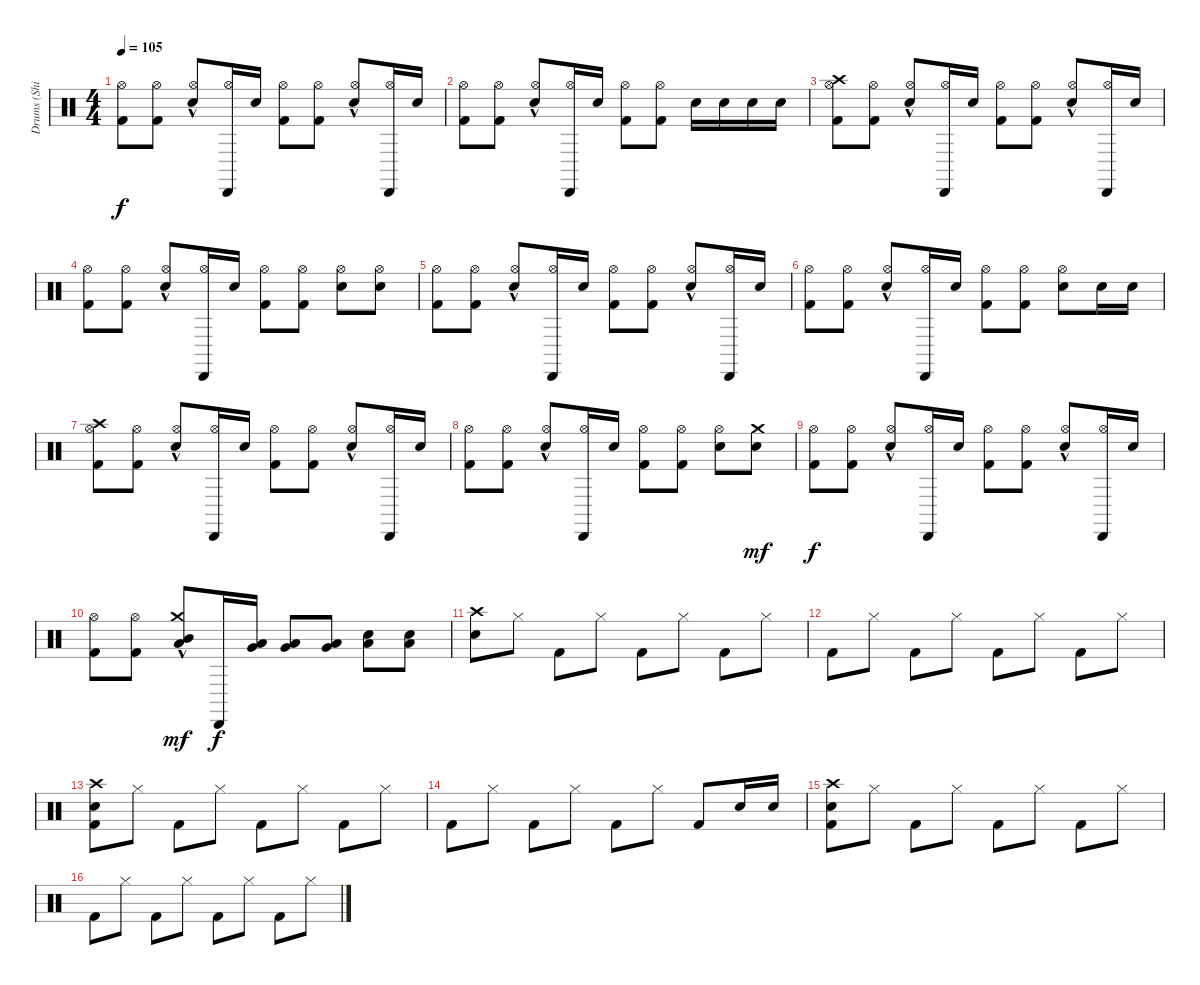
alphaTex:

\track ("Drums (Shinya)" "Drums (Shi") {instrument percussion}
\staff {score}
\articulation defaults
\ts (4 4)
\tempo 105
\clef neutral
\ks c
("Hi-Hat (open)" "Kick (hit) 2").8{dy f} ("Hi-Hat (open)" "Kick (hit) 2").8 ("Hi-Hat (open)" "Electric Snare (hit)"{hac}).8 ("Hi-Hat (open)" "Cabasa (hit)").16 "Electric Snare (hit)".16 ("Kick (hit) 2" "Hi-Hat (open)").8 ("Hi-Hat (open)" "Kick (hit) 2").8 ("Electric Snare (hit)"{hac} "Hi-Hat (open)").8 ("Hi-Hat (open)" "Cabasa (hit)").16 "Electric Snare (hit)".16 |
("Hi-Hat (open)" "Kick (hit) 2").8 ("Hi-Hat (open)" "Kick (hit) 2").8 ("Electric Snare (hit)"{hac} "Hi-Hat (open)").8 ("Hi-Hat (open)" "Cabasa (hit)").16 "Electric Snare (hit)".16 ("Hi-Hat (open)" "Kick (hit) 2").8 ("Hi-Hat (open)" "Kick (hit) 2").8 "Electric Snare (hit)".16 "Electric Snare (hit)".16 "Electric Snare (hit)".16 "Electric Snare (hit)".16 |
("Hi-Hat (open)" "Crash high (hit)" "Kick (hit) 2").8 ("Hi-Hat (open)" "Kick (hit) 2").8 ("Hi-Hat (open)" "Electric Snare (hit)"{hac}).8 ("Hi-Hat (open)" "Cabasa (hit)").16 "Electric Snare (hit)".16 ("Kick (hit) 2" "Hi-Hat (open)").8 ("Hi-Hat (open)" "Kick (hit) 2").8 ("Electric Snare (hit)"{hac} "Hi-Hat (open)").8 ("Hi-Hat (open)" "Cabasa (hit)").16 "Electric Snare (hit)".16 |
("Hi-Hat (open)" "Kick (hit) 2").8 ("Hi-Hat (open)" "Kick (hit) 2").8 ("Electric Snare (hit)"{hac} "Hi-Hat (open)").8 ("Hi-Hat (open)" "Cabasa (hit)").16 "Electric Snare (hit)".16 ("Hi-Hat (open)" "Kick (hit) 2").8 ("Hi-Hat (open)" "Kick (hit) 2").8 ("Electric Snare (hit)" "Hi-Hat (open)").8 ("Hi-Hat (open)" "Electric Snare (hit)").8 |
("Hi-Hat (open)" "Kick (hit) 2").8 ("Hi-Hat (open)" "Kick (hit) 2").8 ("Hi-Hat (open)" "Electric Snare (hit)"{hac}).8 ("Hi-Hat (open)" "Cabasa (hit)").16 "Electric Snare (hit)".16 ("Kick (hit) 2" "Hi-Hat (open)").8 ("Hi-Hat (open)" "Kick (hit) 2").8 ("Electric Snare (hit)"{hac} "Hi-Hat (open)").8 ("Hi-Hat (open)" "Cabasa (hit)").16 "Electric Snare (hit)".16 |
("Hi-Hat (open)" "Kick (hit) 2").8 ("Hi-Hat (open)" "Kick (hit) 2").8 ("Electric Snare (hit)"{hac} "Hi-Hat (open)").8 ("Hi-Hat (open)" "Cabasa (hit)").16 "Electric Snare (hit)".16 ("Hi-Hat (open)" "Kick (hit) 2").8 ("Hi-Hat (open)" "Kick (hit) 2").8 ("Electric Snare (hit)" "Hi-Hat (open)").8 "Electric Snare (hit)".16 "Electric Snare (hit)".16 |
("Hi-Hat (open)" "Crash high (hit)" "Kick (hit) 2").8 ("Hi-Hat (open)" "Kick (hit) 2").8 ("Hi-Hat (open)" "Electric Snare (hit)"{hac}).8 ("Hi-Hat (open)" "Cabasa (hit)").16 "Electric Snare (hit)".16 ("Kick (hit) 2" "Hi-Hat (open)").8 ("Hi-Hat (open)" "Kick (hit) 2").8 ("Electric Snare (hit)"{hac} "Hi-Hat (open)").8 ("Hi-Hat (open)" "Cabasa (hit)").16 "Electric Snare (hit)".16 |
("Hi-Hat (open)" "Kick (hit) 2").8 ("Hi-Hat (open)" "Kick (hit) 2").8 ("Electric Snare (hit)"{hac} "Hi-Hat (open)").8 ("Hi-Hat (open)" "Cabasa (hit)").16 "Electric Snare (hit)".16 ("Hi-Hat (open)" "Kick (hit) 2").8 ("Hi-Hat (open)" "Kick (hit) 2").8 ("Electric Snare (hit)" "Hi-Hat (open)").8 ("Crash medium (hit)" "Electric Snare (hit)").8{dy mf} |
("Hi-Hat (open)" "Kick (hit) 2").8{dy f} ("Hi-Hat (open)" "Kick (hit) 2").8 ("Hi-Hat (open)" "Electric Snare (hit)"{hac}).8 ("Hi-Hat (open)" "Cabasa (hit)").16 "Electric Snare (hit)".16 ("Kick (hit) 2" "Hi-Hat (open)").8 ("Hi-Hat (open)" "Kick (hit) 2").8 ("Electric Snare (hit)"{hac} "Hi-Hat (open)").8 ("Hi-Hat (open)" "Cabasa (hit)").16 "Electric Snare (hit)".16 |
("Hi-Hat (open)" "Kick (hit) 2").8 ("Hi-Hat (open)" "Kick (hit) 2").8 ("Low Tom (hit)"{hac} "Crash medium (hit)" "Mid Tom (hit)"{hac}).8{dy mf} "Cabasa (hit)".16{dy f} ("Low Tom (hit)" "Very Low Tom (hit)").16 ("Very Low Tom (hit)" "Low Floor Tom (hit)").8 ("Very Low Tom (hit)" "Low Floor Tom (hit)").8 ("Snare (hit) 2" "Low Floor Tom (hit)").8 ("Snare (hit) 2" "Low Floor Tom (hit)").8 |
("Crash high (hit)" "Electric Snare (hit)").8 "Hi-Hat (closed)".8 "Kick (hit) 2".8 "Hi-Hat (closed)".8 "Kick (hit) 2".8 "Hi-Hat (closed)".8 "Kick (hit) 2".8 "Hi-Hat (closed)".8 |
"Kick (hit) 2".8 "Hi-Hat (closed)".8 "Kick (hit) 2".8 "Hi-Hat (closed)".8 "Kick (hit) 2".8 "Hi-Hat (closed)".8 "Kick (hit) 2".8 "Hi-Hat (closed)".8 |
("Electric Snare (hit)" "Kick (hit) 2" "Crash high (hit)").8 "Hi-Hat (closed)".8 "Kick (hit) 2".8 "Hi-Hat (closed)".8 "Kick (hit) 2".8 "Hi-Hat (closed)".8 "Kick (hit) 2".8 "Hi-Hat (closed)".8 |
"Kick (hit) 2".8 "Hi-Hat (closed)".8 "Kick (hit) 2".8 "Hi-Hat (closed)".8 "Kick (hit) 2".8 "Hi-Hat (closed)".8 "Kick (hit) 2".8 "Electric Snare (hit)".16 "Electric Snare (hit)".16 |
("Crash high (hit)" "Electric Snare (hit)" "Kick (hit) 2").8 "Hi-Hat (closed)".8 "Kick (hit) 2".8 "Hi-Hat (closed)".8 "Kick (hit) 2".8 "Hi-Hat (closed)".8 "Kick (hit) 2".8 "Hi-Hat (closed)".8 |
"Kick (hit) 2".8 "Hi-Hat (closed)".8 "Kick (hit) 2".8 "Hi-Hat (closed)".8 "Kick (hit) 2".8 "Hi-Hat (closed)".8 "Kick (hit) 2".8 "Hi-Hat (closed)".8
